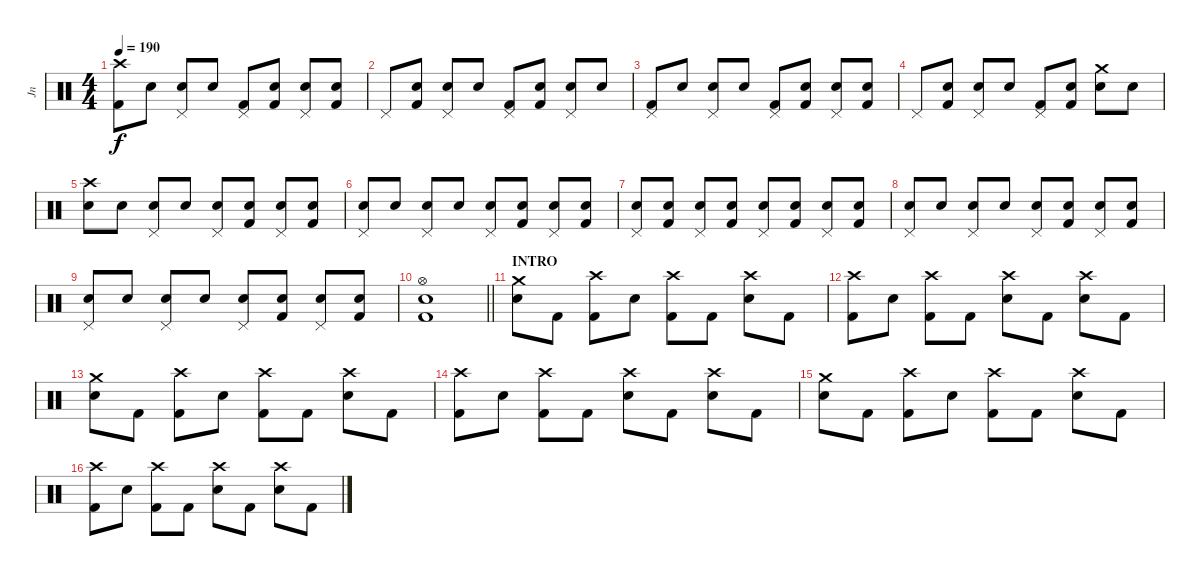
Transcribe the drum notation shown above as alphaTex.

\track ("Jn" "Jn") {instrument percussion}
\staff {score}
\articulation defaults
\ts (4 4)
\tempo 190
\clef neutral
\ks c
("Crash high (hit)" "Kick (hit) 2").8{dy f} "Snare (hit)".8 ("Pedal Hi-Hat (hit)" "Electric Snare (hit)").8 "Snare (hit)".8 ("Pedal Hi-Hat (hit)" "Kick (hit) 2").8 ("Snare (hit)" "Kick (hit) 2").8 ("Pedal Hi-Hat (hit)" "Electric Snare (hit)").8 ("Snare (hit)" "Kick (hit) 2").8 |
"Pedal Hi-Hat (hit)".8 ("Snare (hit)" "Kick (hit) 2").8 ("Pedal Hi-Hat (hit)" "Electric Snare (hit)").8 "Snare (hit)".8 ("Pedal Hi-Hat (hit)" "Kick (hit) 2").8 ("Snare (hit)" "Kick (hit) 2").8 ("Pedal Hi-Hat (hit)" "Electric Snare (hit)").8 "Snare (hit)".8 |
("Pedal Hi-Hat (hit)" "Kick (hit) 2").8 "Snare (hit)".8 ("Pedal Hi-Hat (hit)" "Electric Snare (hit)").8 "Snare (hit)".8 ("Pedal Hi-Hat (hit)" "Kick (hit) 2").8 ("Snare (hit)" "Kick (hit) 2").8 ("Pedal Hi-Hat (hit)" "Electric Snare (hit)").8 ("Snare (hit)" "Kick (hit) 2").8 |
"Pedal Hi-Hat (hit)".8 ("Snare (hit)" "Kick (hit) 2").8 ("Pedal Hi-Hat (hit)" "Electric Snare (hit)").8 "Snare (hit)".8 ("Pedal Hi-Hat (hit)" "Kick (hit) 2").8 ("Snare (hit)" "Kick (hit) 2").8 ("Crash medium (hit)" "Electric Snare (hit)").8 "Snare (hit)".8 |
("Crash high (hit)" "Electric Snare (hit)").8 "Snare (hit)".8 ("Pedal Hi-Hat (hit)" "Electric Snare (hit)").8 "Snare (hit)".8 ("Pedal Hi-Hat (hit)" "Electric Snare (hit)").8 ("Snare (hit)" "Kick (hit) 2").8 ("Pedal Hi-Hat (hit)" "Electric Snare (hit)").8 ("Snare (hit)" "Kick (hit) 2").8 |
("Pedal Hi-Hat (hit)" "Electric Snare (hit)").8 "Snare (hit)".8 ("Pedal Hi-Hat (hit)" "Electric Snare (hit)").8 "Snare (hit)".8 ("Pedal Hi-Hat (hit)" "Electric Snare (hit)").8 ("Snare (hit)" "Kick (hit) 2").8 ("Pedal Hi-Hat (hit)" "Electric Snare (hit)").8 ("Snare (hit)" "Kick (hit) 2").8 |
("Pedal Hi-Hat (hit)" "Electric Snare (hit)").8 ("Snare (hit)" "Kick (hit) 2").8 ("Pedal Hi-Hat (hit)" "Electric Snare (hit)").8 ("Snare (hit)" "Kick (hit) 2").8 ("Pedal Hi-Hat (hit)" "Electric Snare (hit)").8 ("Snare (hit)" "Kick (hit) 2").8 ("Pedal Hi-Hat (hit)" "Electric Snare (hit)").8 ("Snare (hit)" "Kick (hit) 2").8 |
("Pedal Hi-Hat (hit)" "Electric Snare (hit)").8 "Snare (hit)".8 ("Pedal Hi-Hat (hit)" "Electric Snare (hit)").8 "Snare (hit)".8 ("Pedal Hi-Hat (hit)" "Electric Snare (hit)").8 ("Snare (hit)" "Kick (hit) 2").8 ("Pedal Hi-Hat (hit)" "Electric Snare (hit)").8 ("Snare (hit)" "Kick (hit) 2").8 |
("Pedal Hi-Hat (hit)" "Electric Snare (hit)").8 "Snare (hit)".8 ("Pedal Hi-Hat (hit)" "Electric Snare (hit)").8 "Snare (hit)".8 ("Pedal Hi-Hat (hit)" "Electric Snare (hit)").8 ("Snare (hit)" "Kick (hit) 2").8 ("Pedal Hi-Hat (hit)" "Electric Snare (hit)").8 ("Snare (hit)" "Kick (hit) 2").8 |
\barLineRight lightlight
("Kick (hit) 2" "Electric Snare (hit)" "Hi-Hat (open)").1 |
\section ("" "INTRO")
("Crash medium (hit)" "Electric Snare (hit)").8 "Kick (hit) 2".8 ("Crash high (hit)" "Kick (hit) 2").8 "Electric Snare (hit)".8 ("Crash high (hit)" "Kick (hit) 2").8 "Kick (hit) 2".8 ("Crash high (hit)" "Electric Snare (hit)").8 "Kick (hit) 2".8 |
("Crash high (hit)" "Kick (hit) 2").8 "Electric Snare (hit)".8 ("Crash high (hit)" "Kick (hit) 2").8 "Kick (hit) 2".8 ("Crash high (hit)" "Electric Snare (hit)").8 "Kick (hit) 2".8 ("Crash high (hit)" "Electric Snare (hit)").8 "Kick (hit) 2".8 |
("Crash medium (hit)" "Electric Snare (hit)").8 "Kick (hit) 2".8 ("Crash high (hit)" "Kick (hit) 2").8 "Electric Snare (hit)".8 ("Crash high (hit)" "Kick (hit) 2").8 "Kick (hit) 2".8 ("Crash high (hit)" "Electric Snare (hit)").8 "Kick (hit) 2".8 |
("Crash high (hit)" "Kick (hit) 2").8 "Electric Snare (hit)".8 ("Crash high (hit)" "Kick (hit) 2").8 "Kick (hit) 2".8 ("Crash high (hit)" "Electric Snare (hit)").8 "Kick (hit) 2".8 ("Crash high (hit)" "Electric Snare (hit)").8 "Kick (hit) 2".8 |
("Crash medium (hit)" "Electric Snare (hit)").8 "Kick (hit) 2".8 ("Crash high (hit)" "Kick (hit) 2").8 "Electric Snare (hit)".8 ("Crash high (hit)" "Kick (hit) 2").8 "Kick (hit) 2".8 ("Crash high (hit)" "Electric Snare (hit)").8 "Kick (hit) 2".8 |
("Crash high (hit)" "Kick (hit) 2").8 "Electric Snare (hit)".8 ("Crash high (hit)" "Kick (hit) 2").8 "Kick (hit) 2".8 ("Crash high (hit)" "Electric Snare (hit)").8 "Kick (hit) 2".8 ("Crash high (hit)" "Electric Snare (hit)").8 "Kick (hit) 2".8
